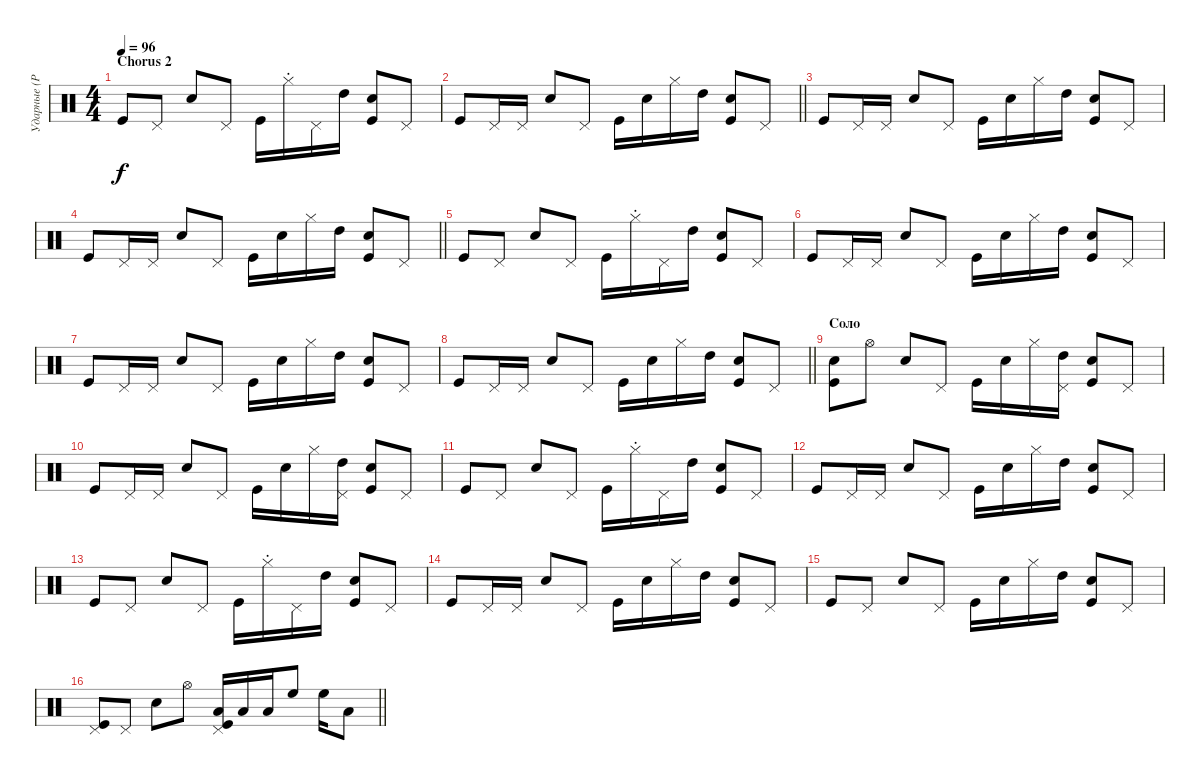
\track ("Ударные (Phil Collins)" "Ударные (P") {instrument percussion}
\staff {score}
\articulation defaults
\ts (4 4)
\section ("" "Chorus 2")
\tempo 96
\clef neutral
\ks c "Kick (hit)".8{dy f} "Pedal Hi-Hat (hit)".8 "Electric Snare (hit)".8 "Pedal Hi-Hat (hit)".8 "Kick (hit)".16 "Hi-Hat (closed)"{st}.16 "Pedal Hi-Hat (hit)".16 "High Tom (hit)".16
("Electric Snare (hit)" "Kick (hit)").8 "Pedal Hi-Hat (hit)".8 |
\barLineRight lightlight "Kick (hit)".8 "Pedal Hi-Hat (hit)".16 "Pedal Hi-Hat (hit)".16 "Electric Snare (hit)".8 "Pedal Hi-Hat (hit)".8 "Kick (hit)".16 "Electric Snare (hit)".16 "Hi-Hat (closed)".16 "High Tom (hit)".16
("Electric Snare (hit)" "Kick (hit)").8 "Pedal Hi-Hat (hit)".8 |
"Kick (hit)".8 "Pedal Hi-Hat (hit)".16 "Pedal Hi-Hat (hit)".16 "Electric Snare (hit)".8 "Pedal Hi-Hat (hit)".8 "Kick (hit)".16 "Electric Snare (hit)".16 "Hi-Hat (closed)".16 "High Tom (hit)".16 ("Electric Snare (hit)" "Kick (hit)").8 "Pedal Hi-Hat (hit)".8 |
\barLineRight lightlight "Kick (hit)".8 "Pedal Hi-Hat (hit)".16 "Pedal Hi-Hat (hit)".16 "Electric Snare (hit)".8 "Pedal Hi-Hat (hit)".8 "Kick (hit)".16 "Electric Snare (hit)".16 "Hi-Hat (closed)".16 "High Tom (hit)".16
("Electric Snare (hit)" "Kick (hit)").8 "Pedal Hi-Hat (hit)".8 |
"Kick (hit)".8 "Pedal Hi-Hat (hit)".8 "Electric Snare (hit)".8 "Pedal Hi-Hat (hit)".8 "Kick (hit)".16 "Hi-Hat (closed)"{st}.16 "Pedal Hi-Hat (hit)".16 "High Tom (hit)".16 ("Electric Snare (hit)" "Kick (hit)").8 "Pedal Hi-Hat (hit)".8 |
"Kick (hit)".8 "Pedal Hi-Hat (hit)".16 "Pedal Hi-Hat (hit)".16 "Electric Snare (hit)".8 "Pedal Hi-Hat (hit)".8 "Kick (hit)".16 "Electric Snare (hit)".16 "Hi-Hat (closed)".16 "High Tom (hit)".16 ("Electric Snare (hit)" "Kick (hit)").8 "Pedal Hi-Hat (hit)".8 |
"Kick (hit)".8 "Pedal Hi-Hat (hit)".16 "Pedal Hi-Hat (hit)".16 "Electric Snare (hit)".8 "Pedal Hi-Hat (hit)".8 "Kick (hit)".16 "Electric Snare (hit)".16 "Hi-Hat (closed)".16 "High Tom (hit)".16 ("Electric Snare (hit)" "Kick (hit)").8 "Pedal Hi-Hat (hit)".8 |
\barLineRight lightlight "Kick (hit)".8 "Pedal Hi-Hat (hit)".16 "Pedal Hi-Hat (hit)".16 "Electric Snare (hit)".8 "Pedal Hi-Hat (hit)".8 "Kick (hit)".16 "Electric Snare (hit)".16 "Hi-Hat (closed)".16 "High Tom (hit)".16
("Electric Snare (hit)" "Kick (hit)").8 "Pedal Hi-Hat (hit)".8 |
\section ("" "Соло")
("Electric Snare (hit)" "Kick (hit)").8 "Hi-Hat (open)".8 "Electric Snare (hit)".8 "Pedal Hi-Hat (hit)".8 "Kick (hit)".16 "Electric Snare (hit)".16 "Hi-Hat (closed)".16 ("Pedal Hi-Hat (hit)" "High Tom (hit)").16 ("Electric Snare (hit)" "Kick (hit)").8 "Pedal Hi-Hat (hit)".8 |
"Kick (hit)".8 "Pedal Hi-Hat (hit)".16 "Pedal Hi-Hat (hit)".16 "Electric Snare (hit)".8 "Pedal Hi-Hat (hit)".8 "Kick (hit)".16 "Electric Snare (hit)".16 "Hi-Hat (closed)".16 ("Pedal Hi-Hat (hit)" "High Tom (hit)").16 ("Electric Snare (hit)" "Kick (hit)").8 "Pedal Hi-Hat (hit)".8 |
"Kick (hit)".8 "Pedal Hi-Hat (hit)".8 "Electric Snare (hit)".8 "Pedal Hi-Hat (hit)".8 "Kick (hit)".16 "Hi-Hat (closed)"{st}.16 "Pedal Hi-Hat (hit)".16 "High Tom (hit)".16 ("Electric Snare (hit)" "Kick (hit)").8 "Pedal Hi-Hat (hit)".8 |
"Kick (hit)".8 "Pedal Hi-Hat (hit)".16 "Pedal Hi-Hat (hit)".16 "Electric Snare (hit)".8 "Pedal Hi-Hat (hit)".8 "Kick (hit)".16 "Electric Snare (hit)".16 "Hi-Hat (closed)".16 "High Tom (hit)".16 ("Electric Snare (hit)" "Kick (hit)").8 "Pedal Hi-Hat (hit)".8 |
"Kick (hit)".8 "Pedal Hi-Hat (hit)".8 "Electric Snare (hit)".8 "Pedal Hi-Hat (hit)".8 "Kick (hit)".16 "Hi-Hat (closed)"{st}.16 "Pedal Hi-Hat (hit)".16 "High Tom (hit)".16 ("Electric Snare (hit)" "Kick (hit)").8 "Pedal Hi-Hat (hit)".8 |
"Kick (hit)".8 "Pedal Hi-Hat (hit)".16 "Pedal Hi-Hat (hit)".16 "Electric Snare (hit)".8 "Pedal Hi-Hat (hit)".8 "Kick (hit)".16 "Electric Snare (hit)".16 "Hi-Hat (closed)".16 "High Tom (hit)".16 ("Electric Snare (hit)" "Kick (hit)").8 "Pedal Hi-Hat (hit)".8 |
"Kick (hit)".8 "Pedal Hi-Hat (hit)".8 "Electric Snare (hit)".8 "Pedal Hi-Hat (hit)".8 "Kick (hit)".16 "Electric Snare (hit)".16 "Hi-Hat (closed)".16 "High Tom (hit)".16 ("Electric Snare (hit)" "Kick (hit)").8 "Pedal Hi-Hat (hit)".8 |
\barLineRight lightlight
("Pedal Hi-Hat (hit)" "Kick (hit)").8 "Pedal Hi-Hat (hit)".8 "Electric Snare (hit)".8 "Hi-Hat (open)".8 ("Pedal Hi-Hat (hit)" "Low Floor Tom (hit)" "Kick (hit)").16 "Low Floor Tom (hit)".16 "Low Floor Tom (hit)".16 "High Floor Tom (hit)".8 "High Floor Tom (hit)".16 "Low Floor Tom (hit)".8
